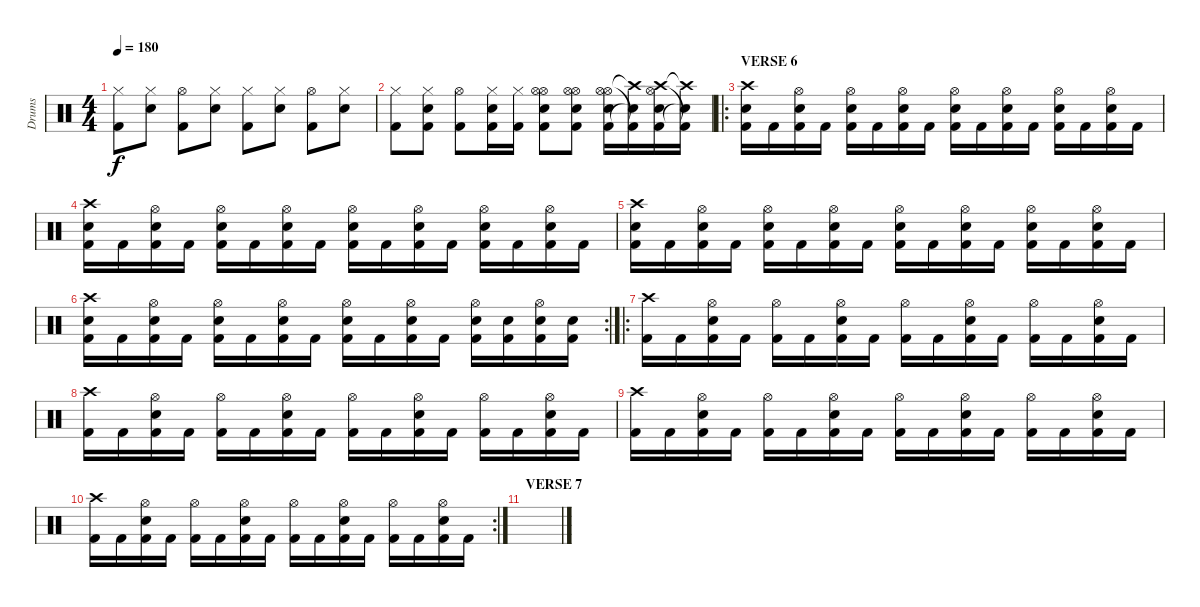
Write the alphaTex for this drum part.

\track ("Drums" "Drums") {instrument percussion}
\staff {score}
\articulation defaults
\ts (4 4)
\tempo 180
\clef neutral
\ks c
("Hi-Hat (closed)" "Kick (hit) 2").8{dy f} ("Hi-Hat (closed)" "Electric Snare (hit)").8 ("Hi-Hat (open)" "Kick (hit) 2").8 ("Hi-Hat (closed)" "Electric Snare (hit)").8 ("Hi-Hat (closed)" "Kick (hit) 2").8 ("Hi-Hat (closed)" "Electric Snare (hit)").8 ("Hi-Hat (open)" "Kick (hit) 2").8 ("Hi-Hat (closed)" "Electric Snare (hit)").8 |
("Hi-Hat (closed)" "Kick (hit) 2").8 ("Hi-Hat (closed)" "Kick (hit) 2" "Electric Snare (hit)").8 ("Hi-Hat (open)" "Kick (hit) 2").8 ("Hi-Hat (closed)" "Kick (hit) 2" "Electric Snare (hit)").16 ("Hi-Hat (closed)" "Kick (hit) 2").16 ("Hi-Hat (open)" "Hi-Hat (open)" "Kick (hit) 2" "Electric Snare (hit)").8 ("Hi-Hat (open)" "Hi-Hat (open)" "Kick (hit) 2" "Electric Snare (hit)").8 ("Hi-Hat (open)" "Hi-Hat (open)" "Kick (hit) 2" "Electric Snare (hit)").16 ("Crash high (hit)"{t} "Kick (hit) 2"{t} "Electric Snare (hit)"{t}).16 ("Crash high (hit)" "Hi-Hat (open)" "Kick (hit) 2" "Electric Snare (hit)").16 ("Crash high (hit)"{t} "Kick (hit) 2"{t} "Electric Snare (hit)"{t}).16 |
\ro
\section ("" "VERSE 6")
("Crash high (hit)" "Electric Snare (hit)" "Kick (hit) 2").16 "Kick (hit) 2".16 ("Hi-Hat (open)" "Electric Snare (hit)" "Kick (hit) 2").16 "Kick (hit) 2".16 ("Hi-Hat (open)" "Electric Snare (hit)" "Kick (hit) 2").16 "Kick (hit) 2".16 ("Hi-Hat (open)" "Electric Snare (hit)" "Kick (hit) 2").16 "Kick (hit) 2".16 ("Hi-Hat (open)" "Electric Snare (hit)" "Kick (hit) 2").16 "Kick (hit) 2".16 ("Hi-Hat (open)" "Electric Snare (hit)" "Kick (hit) 2").16 "Kick (hit) 2".16 ("Hi-Hat (open)" "Electric Snare (hit)" "Kick (hit) 2").16 "Kick (hit) 2".16 ("Hi-Hat (open)" "Electric Snare (hit)" "Kick (hit) 2").16 "Kick (hit) 2".16 |
("Crash high (hit)" "Electric Snare (hit)" "Kick (hit) 2").16 "Kick (hit) 2".16 ("Hi-Hat (open)" "Electric Snare (hit)" "Kick (hit) 2").16 "Kick (hit) 2".16 ("Hi-Hat (open)" "Electric Snare (hit)" "Kick (hit) 2").16 "Kick (hit) 2".16 ("Hi-Hat (open)" "Electric Snare (hit)" "Kick (hit) 2").16 "Kick (hit) 2".16 ("Hi-Hat (open)" "Electric Snare (hit)" "Kick (hit) 2").16 "Kick (hit) 2".16 ("Hi-Hat (open)" "Electric Snare (hit)" "Kick (hit) 2").16 "Kick (hit) 2".16 ("Hi-Hat (open)" "Electric Snare (hit)" "Kick (hit) 2").16 "Kick (hit) 2".16 ("Hi-Hat (open)" "Electric Snare (hit)" "Kick (hit) 2").16 "Kick (hit) 2".16 |
("Crash high (hit)" "Electric Snare (hit)" "Kick (hit) 2").16 "Kick (hit) 2".16 ("Hi-Hat (open)" "Electric Snare (hit)" "Kick (hit) 2").16 "Kick (hit) 2".16 ("Hi-Hat (open)" "Electric Snare (hit)" "Kick (hit) 2").16 "Kick (hit) 2".16 ("Hi-Hat (open)" "Electric Snare (hit)" "Kick (hit) 2").16 "Kick (hit) 2".16 ("Hi-Hat (open)" "Electric Snare (hit)" "Kick (hit) 2").16 "Kick (hit) 2".16 ("Hi-Hat (open)" "Electric Snare (hit)" "Kick (hit) 2").16 "Kick (hit) 2".16 ("Hi-Hat (open)" "Electric Snare (hit)" "Kick (hit) 2").16 "Kick (hit) 2".16 ("Hi-Hat (open)" "Electric Snare (hit)" "Kick (hit) 2").16 "Kick (hit) 2".16 |
\rc 2
("Crash high (hit)" "Electric Snare (hit)" "Kick (hit) 2").16 "Kick (hit) 2".16 ("Hi-Hat (open)" "Electric Snare (hit)" "Kick (hit) 2").16 "Kick (hit) 2".16 ("Hi-Hat (open)" "Electric Snare (hit)" "Kick (hit) 2").16 "Kick (hit) 2".16 ("Hi-Hat (open)" "Electric Snare (hit)" "Kick (hit) 2").16 "Kick (hit) 2".16 ("Hi-Hat (open)" "Electric Snare (hit)" "Kick (hit) 2").16 "Kick (hit) 2".16 ("Hi-Hat (open)" "Electric Snare (hit)" "Kick (hit) 2").16 "Kick (hit) 2".16 ("Hi-Hat (open)" "Electric Snare (hit)" "Kick (hit) 2").16 ("Electric Snare (hit)" "Kick (hit) 2").16 ("Hi-Hat (open)" "Electric Snare (hit)" "Kick (hit) 2").16 ("Electric Snare (hit)" "Kick (hit) 2").16 |
\ro
("Crash high (hit)" "Kick (hit) 2").16 "Kick (hit) 2".16 ("Hi-Hat (open)" "Electric Snare (hit)" "Kick (hit) 2").16 "Kick (hit) 2".16 ("Hi-Hat (open)" "Kick (hit) 2").16 "Kick (hit) 2".16 ("Hi-Hat (open)" "Electric Snare (hit)" "Kick (hit) 2").16 "Kick (hit) 2".16 ("Hi-Hat (open)" "Kick (hit) 2").16 "Kick (hit) 2".16 ("Hi-Hat (open)" "Electric Snare (hit)" "Kick (hit) 2").16 "Kick (hit) 2".16 ("Hi-Hat (open)" "Kick (hit) 2").16 "Kick (hit) 2".16 ("Hi-Hat (open)" "Electric Snare (hit)" "Kick (hit) 2").16 "Kick (hit) 2".16 |
("Crash high (hit)" "Kick (hit) 2").16 "Kick (hit) 2".16 ("Hi-Hat (open)" "Electric Snare (hit)" "Kick (hit) 2").16 "Kick (hit) 2".16 ("Hi-Hat (open)" "Kick (hit) 2").16 "Kick (hit) 2".16 ("Hi-Hat (open)" "Electric Snare (hit)" "Kick (hit) 2").16 "Kick (hit) 2".16 ("Hi-Hat (open)" "Kick (hit) 2").16 "Kick (hit) 2".16 ("Hi-Hat (open)" "Electric Snare (hit)" "Kick (hit) 2").16 "Kick (hit) 2".16 ("Hi-Hat (open)" "Kick (hit) 2").16 "Kick (hit) 2".16 ("Hi-Hat (open)" "Electric Snare (hit)" "Kick (hit) 2").16 "Kick (hit) 2".16 |
("Crash high (hit)" "Kick (hit) 2").16 "Kick (hit) 2".16 ("Hi-Hat (open)" "Electric Snare (hit)" "Kick (hit) 2").16 "Kick (hit) 2".16 ("Hi-Hat (open)" "Kick (hit) 2").16 "Kick (hit) 2".16 ("Hi-Hat (open)" "Electric Snare (hit)" "Kick (hit) 2").16 "Kick (hit) 2".16 ("Hi-Hat (open)" "Kick (hit) 2").16 "Kick (hit) 2".16 ("Hi-Hat (open)" "Electric Snare (hit)" "Kick (hit) 2").16 "Kick (hit) 2".16 ("Hi-Hat (open)" "Kick (hit) 2").16 "Kick (hit) 2".16 ("Hi-Hat (open)" "Electric Snare (hit)" "Kick (hit) 2").16 "Kick (hit) 2".16 |
\rc 2
("Crash high (hit)" "Kick (hit) 2").16 "Kick (hit) 2".16 ("Hi-Hat (open)" "Electric Snare (hit)" "Kick (hit) 2").16 "Kick (hit) 2".16 ("Hi-Hat (open)" "Kick (hit) 2").16 "Kick (hit) 2".16 ("Hi-Hat (open)" "Electric Snare (hit)" "Kick (hit) 2").16 "Kick (hit) 2".16 ("Hi-Hat (open)" "Kick (hit) 2").16 "Kick (hit) 2".16 ("Hi-Hat (open)" "Electric Snare (hit)" "Kick (hit) 2").16 "Kick (hit) 2".16 ("Hi-Hat (open)" "Kick (hit) 2").16 "Kick (hit) 2".16 ("Hi-Hat (open)" "Electric Snare (hit)" "Kick (hit) 2").16 "Kick (hit) 2".16 |
\section ("" "VERSE 7")
